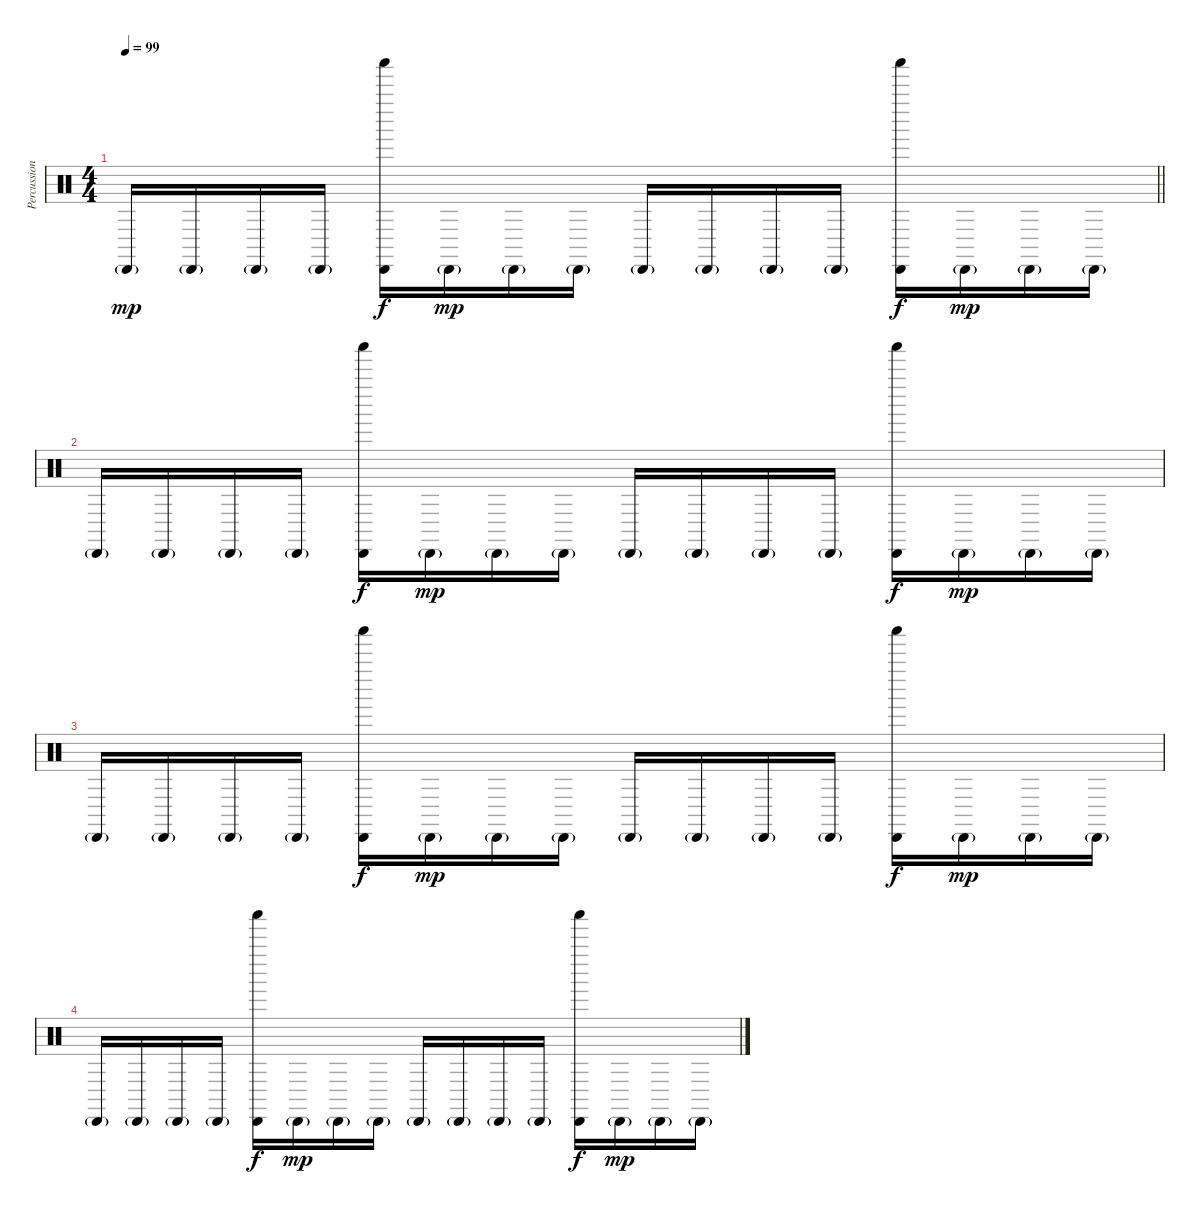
\track ("Percussion" "Percussion") {instrument percussion}
\staff {score}
\articulation defaults
\ts (4 4)
\tempo 99
\clef neutral
\barLineRight lightlight
\ks c "Cabasa (hit)"{g}.16{dy mp} "Cabasa (hit)"{g}.16 "Cabasa (hit)"{g}.16 "Cabasa (hit)"{g}.16
("Cabasa (hit)" "Shaker (hit)").16{dy f} "Cabasa (hit)"{g}.16{dy mp} "Cabasa (hit)"{g}.16 "Cabasa (hit)"{g}.16 "Cabasa (hit)"{g}.16 "Cabasa (hit)"{g}.16 "Cabasa (hit)"{g}.16 "Cabasa (hit)"{g}.16 ("Cabasa (hit)" "Shaker (hit)").16{dy f} "Cabasa (hit)"{g}.16{dy mp} "Cabasa (hit)"{g}.16 "Cabasa (hit)"{g}.16 |
"Cabasa (hit)"{g}.16 "Cabasa (hit)"{g}.16 "Cabasa (hit)"{g}.16 "Cabasa (hit)"{g}.16 ("Cabasa (hit)" "Shaker (hit)").16{dy f} "Cabasa (hit)"{g}.16{dy mp} "Cabasa (hit)"{g}.16 "Cabasa (hit)"{g}.16 "Cabasa (hit)"{g}.16 "Cabasa (hit)"{g}.16 "Cabasa (hit)"{g}.16 "Cabasa (hit)"{g}.16 ("Cabasa (hit)" "Shaker (hit)").16{dy f} "Cabasa (hit)"{g}.16{dy mp} "Cabasa (hit)"{g}.16 "Cabasa (hit)"{g}.16 |
"Cabasa (hit)"{g}.16 "Cabasa (hit)"{g}.16 "Cabasa (hit)"{g}.16 "Cabasa (hit)"{g}.16 ("Cabasa (hit)" "Shaker (hit)").16{dy f} "Cabasa (hit)"{g}.16{dy mp} "Cabasa (hit)"{g}.16 "Cabasa (hit)"{g}.16 "Cabasa (hit)"{g}.16 "Cabasa (hit)"{g}.16 "Cabasa (hit)"{g}.16 "Cabasa (hit)"{g}.16 ("Cabasa (hit)" "Shaker (hit)").16{dy f} "Cabasa (hit)"{g}.16{dy mp} "Cabasa (hit)"{g}.16 "Cabasa (hit)"{g}.16 |
"Cabasa (hit)"{g}.16 "Cabasa (hit)"{g}.16 "Cabasa (hit)"{g}.16 "Cabasa (hit)"{g}.16 ("Cabasa (hit)" "Shaker (hit)").16{dy f} "Cabasa (hit)"{g}.16{dy mp} "Cabasa (hit)"{g}.16 "Cabasa (hit)"{g}.16 "Cabasa (hit)"{g}.16 "Cabasa (hit)"{g}.16 "Cabasa (hit)"{g}.16 "Cabasa (hit)"{g}.16 ("Cabasa (hit)" "Shaker (hit)").16{dy f} "Cabasa (hit)"{g}.16{dy mp} "Cabasa (hit)"{g}.16 "Cabasa (hit)"{g}.16
